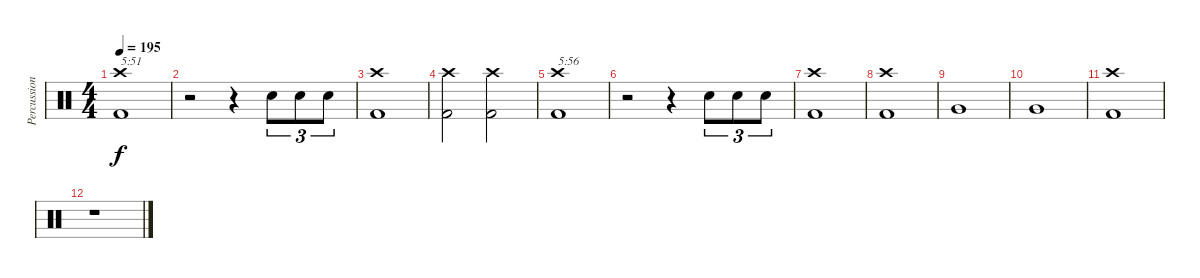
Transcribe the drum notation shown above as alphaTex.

\track ("Percussion" "Percussion") {instrument percussion}
\staff {score}
\articulation defaults
\ts (4 4)
\tempo 195
\clef neutral
\ks c
("Crash high (hit)" "Kick (hit) 2").1{txt "5:51" dy f} |
r.2 r.4 "Snare (hit) 2".8{tu (3 2)} "Snare (hit) 2".8{tu (3 2)} "Snare (hit) 2".8{tu (3 2)} |
("Crash high (hit)" "Kick (hit) 2").1 |
("Crash high (hit)" "Kick (hit) 2").2 ("Crash high (hit)" "Kick (hit) 2").2 |
("Crash high (hit)" "Kick (hit) 2").1{txt "5:56"} |
r.2 r.4 "Snare (hit) 2".8{tu (3 2)} "Snare (hit) 2".8{tu (3 2)} "Snare (hit) 2".8{tu (3 2)} |
("Crash high (hit)" "Kick (hit) 2").1 |
("Crash high (hit)" "Kick (hit) 2").1 |
"Very Low Tom (hit)".1 |
"Very Low Tom (hit)".1 |
("Crash high (hit)" "Kick (hit) 2").1 |
r.1
